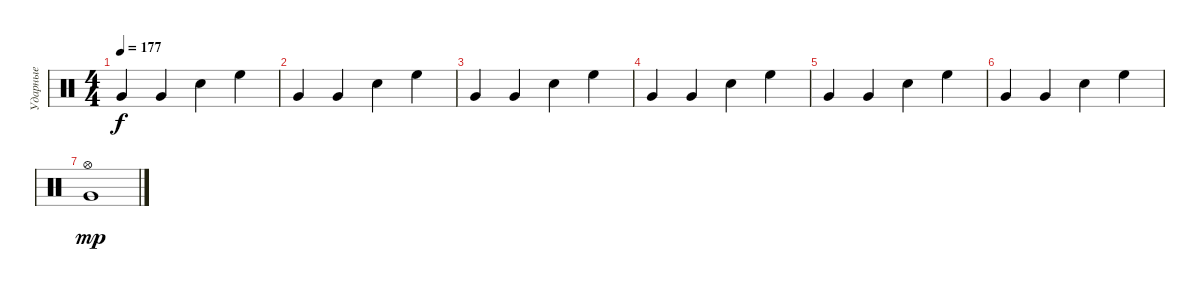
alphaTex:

\track ("Ударные" "Ударные") {instrument percussion}
\staff {score}
\articulation defaults
\ts (4 4)
\tempo 177
\clef neutral
\ks c "Very Low Tom (hit)".4{dy f} "Very Low Tom (hit)".4 "Electric Snare (hit)".4 "High Floor Tom (hit)".4
|
"Very Low Tom (hit)".4 "Very Low Tom (hit)".4 "Electric Snare (hit)".4 "High Floor Tom (hit)".4 |
"Very Low Tom (hit)".4 "Very Low Tom (hit)".4 "Electric Snare (hit)".4 "High Floor Tom (hit)".4 |
"Very Low Tom (hit)".4 "Very Low Tom (hit)".4 "Electric Snare (hit)".4 "High Floor Tom (hit)".4 |
"Very Low Tom (hit)".4 "Very Low Tom (hit)".4 "Electric Snare (hit)".4 "High Floor Tom (hit)".4 |
"Very Low Tom (hit)".4 "Very Low Tom (hit)".4 "Electric Snare (hit)".4 "High Floor Tom (hit)".4 |
("Very Low Tom (hit)" "Hi-Hat (open)").1{dy mp}
